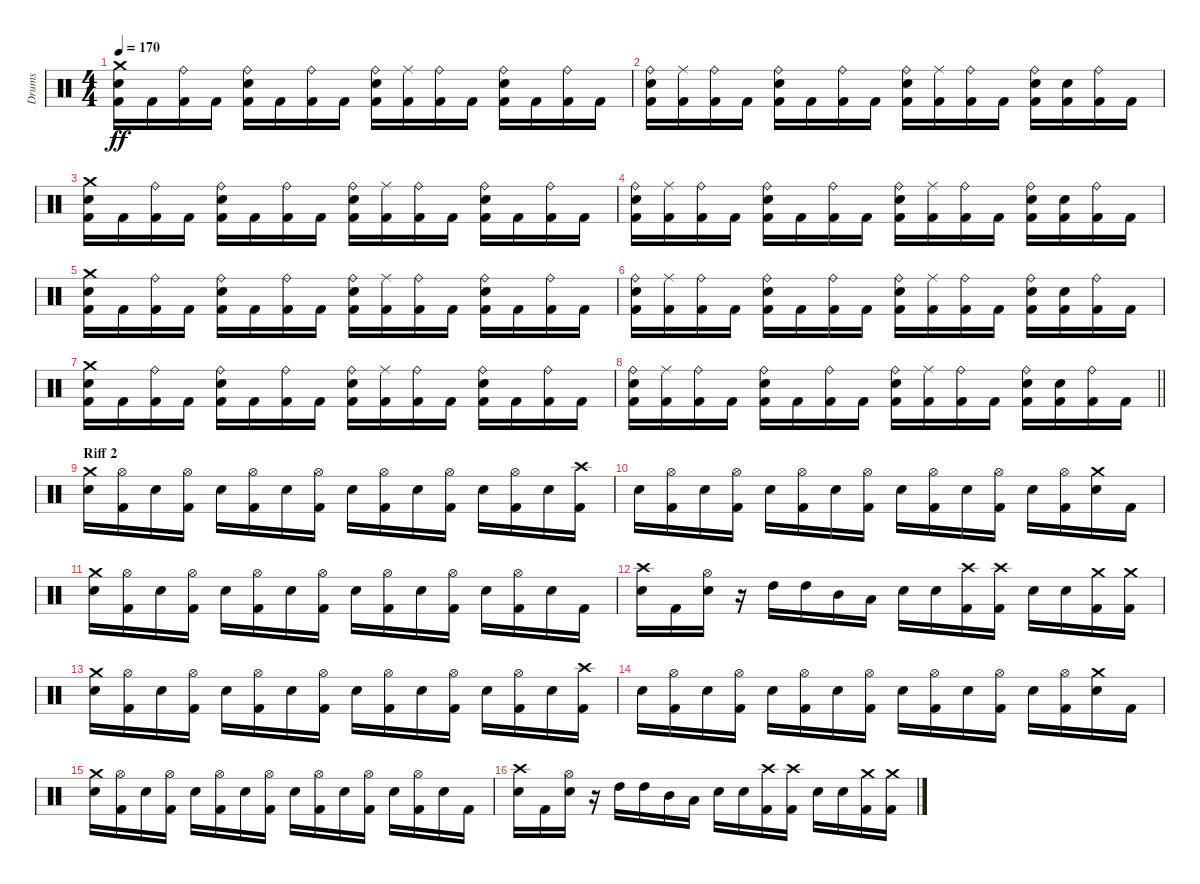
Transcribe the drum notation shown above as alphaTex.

\track ("Drums" "Drums") {instrument percussion}
\staff {score}
\articulation defaults
\ts (4 4)
\tempo 170
\clef neutral
\ks c
("Crash medium (hit)" "Kick (hit) 2" "Snare (hit) 2").16{dy ff} "Kick (hit) 2".16 ("Kick (hit) 2" "Ride (bell)").16 "Kick (hit) 2".16 ("Kick (hit) 2" "Snare (hit) 2" "Ride (bell)").16 "Kick (hit) 2".16 ("Kick (hit) 2" "Ride (bell)").16 "Kick (hit) 2".16 ("Kick (hit) 2" "Snare (hit) 2" "Ride (bell)").16 ("Kick (hit) 2" "Ride (middle)").16 ("Kick (hit) 2" "Ride (bell)").16 "Kick (hit) 2".16 ("Kick (hit) 2" "Snare (hit) 2" "Ride (bell)").16 "Kick (hit) 2".16 ("Kick (hit) 2" "Ride (bell)").16 "Kick (hit) 2".16 |
("Kick (hit) 2" "Snare (hit) 2" "Ride (bell)").16 ("Kick (hit) 2" "Ride (middle)").16 ("Kick (hit) 2" "Ride (bell)").16 "Kick (hit) 2".16 ("Kick (hit) 2" "Snare (hit) 2" "Ride (bell)").16 "Kick (hit) 2".16 ("Kick (hit) 2" "Ride (bell)").16 "Kick (hit) 2".16 ("Kick (hit) 2" "Snare (hit) 2" "Ride (bell)").16 ("Kick (hit) 2" "Ride (middle)").16 ("Kick (hit) 2" "Ride (bell)").16 "Kick (hit) 2".16 ("Kick (hit) 2" "Snare (hit) 2" "Ride (bell)").16 ("Kick (hit) 2" "Snare (hit) 2").16 ("Kick (hit) 2" "Ride (bell)").16 "Kick (hit) 2".16 |
("Crash medium (hit)" "Kick (hit) 2" "Snare (hit) 2").16 "Kick (hit) 2".16 ("Kick (hit) 2" "Ride (bell)").16 "Kick (hit) 2".16 ("Kick (hit) 2" "Snare (hit) 2" "Ride (bell)").16 "Kick (hit) 2".16 ("Kick (hit) 2" "Ride (bell)").16 "Kick (hit) 2".16 ("Kick (hit) 2" "Snare (hit) 2" "Ride (bell)").16 ("Kick (hit) 2" "Ride (middle)").16 ("Kick (hit) 2" "Ride (bell)").16 "Kick (hit) 2".16 ("Kick (hit) 2" "Snare (hit) 2" "Ride (bell)").16 "Kick (hit) 2".16 ("Kick (hit) 2" "Ride (bell)").16 "Kick (hit) 2".16 |
("Kick (hit) 2" "Snare (hit) 2" "Ride (bell)").16 ("Kick (hit) 2" "Ride (middle)").16 ("Kick (hit) 2" "Ride (bell)").16 "Kick (hit) 2".16 ("Kick (hit) 2" "Snare (hit) 2" "Ride (bell)").16 "Kick (hit) 2".16 ("Kick (hit) 2" "Ride (bell)").16 "Kick (hit) 2".16 ("Kick (hit) 2" "Snare (hit) 2" "Ride (bell)").16 ("Kick (hit) 2" "Ride (middle)").16 ("Kick (hit) 2" "Ride (bell)").16 "Kick (hit) 2".16 ("Kick (hit) 2" "Snare (hit) 2" "Ride (bell)").16 ("Kick (hit) 2" "Snare (hit) 2").16 ("Kick (hit) 2" "Ride (bell)").16 "Kick (hit) 2".16 |
("Crash medium (hit)" "Kick (hit) 2" "Snare (hit) 2").16 "Kick (hit) 2".16 ("Kick (hit) 2" "Ride (bell)").16 "Kick (hit) 2".16 ("Kick (hit) 2" "Snare (hit) 2" "Ride (bell)").16 "Kick (hit) 2".16 ("Kick (hit) 2" "Ride (bell)").16 "Kick (hit) 2".16 ("Kick (hit) 2" "Snare (hit) 2" "Ride (bell)").16 ("Kick (hit) 2" "Ride (middle)").16 ("Kick (hit) 2" "Ride (bell)").16 "Kick (hit) 2".16 ("Kick (hit) 2" "Snare (hit) 2" "Ride (bell)").16 "Kick (hit) 2".16 ("Kick (hit) 2" "Ride (bell)").16 "Kick (hit) 2".16 |
("Kick (hit) 2" "Snare (hit) 2" "Ride (bell)").16 ("Kick (hit) 2" "Ride (middle)").16 ("Kick (hit) 2" "Ride (bell)").16 "Kick (hit) 2".16 ("Kick (hit) 2" "Snare (hit) 2" "Ride (bell)").16 "Kick (hit) 2".16 ("Kick (hit) 2" "Ride (bell)").16 "Kick (hit) 2".16 ("Kick (hit) 2" "Snare (hit) 2" "Ride (bell)").16 ("Kick (hit) 2" "Ride (middle)").16 ("Kick (hit) 2" "Ride (bell)").16 "Kick (hit) 2".16 ("Kick (hit) 2" "Snare (hit) 2" "Ride (bell)").16 ("Kick (hit) 2" "Snare (hit) 2").16 ("Kick (hit) 2" "Ride (bell)").16 "Kick (hit) 2".16 |
("Crash medium (hit)" "Kick (hit) 2" "Snare (hit) 2").16 "Kick (hit) 2".16 ("Kick (hit) 2" "Ride (bell)").16 "Kick (hit) 2".16 ("Kick (hit) 2" "Snare (hit) 2" "Ride (bell)").16 "Kick (hit) 2".16 ("Kick (hit) 2" "Ride (bell)").16 "Kick (hit) 2".16 ("Kick (hit) 2" "Snare (hit) 2" "Ride (bell)").16 ("Kick (hit) 2" "Ride (middle)").16 ("Kick (hit) 2" "Ride (bell)").16 "Kick (hit) 2".16 ("Kick (hit) 2" "Snare (hit) 2" "Ride (bell)").16 "Kick (hit) 2".16 ("Kick (hit) 2" "Ride (bell)").16 "Kick (hit) 2".16 |
\barLineRight lightlight
("Kick (hit) 2" "Snare (hit) 2" "Ride (bell)").16 ("Kick (hit) 2" "Ride (middle)").16 ("Kick (hit) 2" "Ride (bell)").16 "Kick (hit) 2".16 ("Kick (hit) 2" "Snare (hit) 2" "Ride (bell)").16 "Kick (hit) 2".16 ("Kick (hit) 2" "Ride (bell)").16 "Kick (hit) 2".16 ("Kick (hit) 2" "Snare (hit) 2" "Ride (bell)").16 ("Kick (hit) 2" "Ride (middle)").16 ("Kick (hit) 2" "Ride (bell)").16 "Kick (hit) 2".16 ("Kick (hit) 2" "Snare (hit) 2" "Ride (bell)").16 ("Kick (hit) 2" "Snare (hit) 2").16 ("Kick (hit) 2" "Ride (bell)").16 "Kick (hit) 2".16 |
\section ("" "Riff 2")
("Crash medium (hit)" "Snare (hit) 2").16 ("Hi-Hat (open)" "Kick (hit) 2").16 "Snare (hit) 2".16 ("Hi-Hat (open)" "Kick (hit) 2").16 "Snare (hit) 2".16 ("Hi-Hat (open)" "Kick (hit) 2").16 "Snare (hit) 2".16 ("Hi-Hat (open)" "Kick (hit) 2").16 "Snare (hit) 2".16 ("Hi-Hat (open)" "Kick (hit) 2").16 "Snare (hit) 2".16 ("Hi-Hat (open)" "Kick (hit) 2").16 "Snare (hit) 2".16 ("Hi-Hat (open)" "Kick (hit) 2").16 "Snare (hit) 2".16 ("Crash high (hit)" "Kick (hit) 2").16 |
"Snare (hit) 2".16 ("Hi-Hat (open)" "Kick (hit) 2").16 "Snare (hit) 2".16 ("Hi-Hat (open)" "Kick (hit) 2").16 "Snare (hit) 2".16 ("Hi-Hat (open)" "Kick (hit) 2").16 "Snare (hit) 2".16 ("Hi-Hat (open)" "Kick (hit) 2").16 "Snare (hit) 2".16 ("Hi-Hat (open)" "Kick (hit) 2").16 "Snare (hit) 2".16 ("Hi-Hat (open)" "Kick (hit) 2").16 "Snare (hit) 2".16 ("Hi-Hat (open)" "Kick (hit) 2").16 ("Crash medium (hit)" "Snare (hit) 2").16 "Kick (hit) 2".16 |
("Crash medium (hit)" "Snare (hit) 2").16 ("Hi-Hat (open)" "Kick (hit) 2").16 "Snare (hit) 2".16 ("Hi-Hat (open)" "Kick (hit) 2").16 "Snare (hit) 2".16 ("Hi-Hat (open)" "Kick (hit) 2").16 "Snare (hit) 2".16 ("Hi-Hat (open)" "Kick (hit) 2").16 "Snare (hit) 2".16 ("Hi-Hat (open)" "Kick (hit) 2").16 "Snare (hit) 2".16 ("Hi-Hat (open)" "Kick (hit) 2").16 "Snare (hit) 2".16 ("Hi-Hat (open)" "Kick (hit) 2").16 "Snare (hit) 2".16 "Kick (hit) 2".16 |
("Crash high (hit)" "Snare (hit) 2").16 "Kick (hit) 2".16 ("Hi-Hat (open)" "Snare (hit) 2").16 r.16 "High Tom (hit)".16 "High Tom (hit)".16 "Mid Tom (hit)".16 "Low Tom (hit)".16 "Snare (hit) 2".16 "Snare (hit) 2".16 ("Crash high (hit)" "Kick (hit) 2").16 ("Crash high (hit)" "Kick (hit) 2").16 "Snare (hit) 2".16 "Snare (hit) 2".16 ("Crash medium (hit)" "Kick (hit) 2").16 ("Crash medium (hit)" "Kick (hit) 2").16 |
("Crash medium (hit)" "Snare (hit) 2").16 ("Hi-Hat (open)" "Kick (hit) 2").16 "Snare (hit) 2".16 ("Hi-Hat (open)" "Kick (hit) 2").16 "Snare (hit) 2".16 ("Hi-Hat (open)" "Kick (hit) 2").16 "Snare (hit) 2".16 ("Hi-Hat (open)" "Kick (hit) 2").16 "Snare (hit) 2".16 ("Hi-Hat (open)" "Kick (hit) 2").16 "Snare (hit) 2".16 ("Hi-Hat (open)" "Kick (hit) 2").16 "Snare (hit) 2".16 ("Hi-Hat (open)" "Kick (hit) 2").16 "Snare (hit) 2".16 ("Crash high (hit)" "Kick (hit) 2").16 |
"Snare (hit) 2".16 ("Hi-Hat (open)" "Kick (hit) 2").16 "Snare (hit) 2".16 ("Hi-Hat (open)" "Kick (hit) 2").16 "Snare (hit) 2".16 ("Hi-Hat (open)" "Kick (hit) 2").16 "Snare (hit) 2".16 ("Hi-Hat (open)" "Kick (hit) 2").16 "Snare (hit) 2".16 ("Hi-Hat (open)" "Kick (hit) 2").16 "Snare (hit) 2".16 ("Hi-Hat (open)" "Kick (hit) 2").16 "Snare (hit) 2".16 ("Hi-Hat (open)" "Kick (hit) 2").16 ("Crash medium (hit)" "Snare (hit) 2").16 "Kick (hit) 2".16 |
("Crash medium (hit)" "Snare (hit) 2").16 ("Hi-Hat (open)" "Kick (hit) 2").16 "Snare (hit) 2".16 ("Hi-Hat (open)" "Kick (hit) 2").16 "Snare (hit) 2".16 ("Hi-Hat (open)" "Kick (hit) 2").16 "Snare (hit) 2".16 ("Hi-Hat (open)" "Kick (hit) 2").16 "Snare (hit) 2".16 ("Hi-Hat (open)" "Kick (hit) 2").16 "Snare (hit) 2".16 ("Hi-Hat (open)" "Kick (hit) 2").16 "Snare (hit) 2".16 ("Hi-Hat (open)" "Kick (hit) 2").16 "Snare (hit) 2".16 "Kick (hit) 2".16 |
("Crash high (hit)" "Snare (hit) 2").16 "Kick (hit) 2".16 ("Hi-Hat (open)" "Snare (hit) 2").16 r.16 "High Tom (hit)".16 "High Tom (hit)".16 "Mid Tom (hit)".16 "Low Tom (hit)".16 "Snare (hit) 2".16 "Snare (hit) 2".16 ("Crash high (hit)" "Kick (hit) 2").16 ("Crash high (hit)" "Kick (hit) 2").16 "Snare (hit) 2".16 "Snare (hit) 2".16 ("Crash medium (hit)" "Kick (hit) 2").16 ("Crash medium (hit)" "Kick (hit) 2").16
